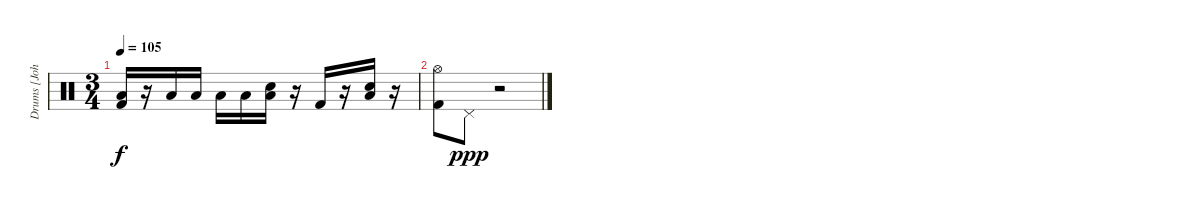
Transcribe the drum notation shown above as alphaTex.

\track ("Drums [John Otto]" "Drums [Joh") {instrument percussion}
\staff {score}
\articulation defaults
\ts (3 4)
\tempo 105
\clef neutral
\ks c
("Kick (hit) 2" "Low Tom (hit)").16{dy f} r.16 "Low Tom (hit)".16 "Low Tom (hit)".16 "Low Tom (hit)".16 "Low Tom (hit)".16 ("Electric Snare (hit)" "Low Tom (hit)").16 r.16 "Kick (hit) 2".16 r.16 ("Electric Snare (hit)" "Low Tom (hit)").16 r.16 |
("Hi-Hat (open)" "Kick (hit) 2").8 "Pedal Hi-Hat (hit)".8{dy ppp} r.2
